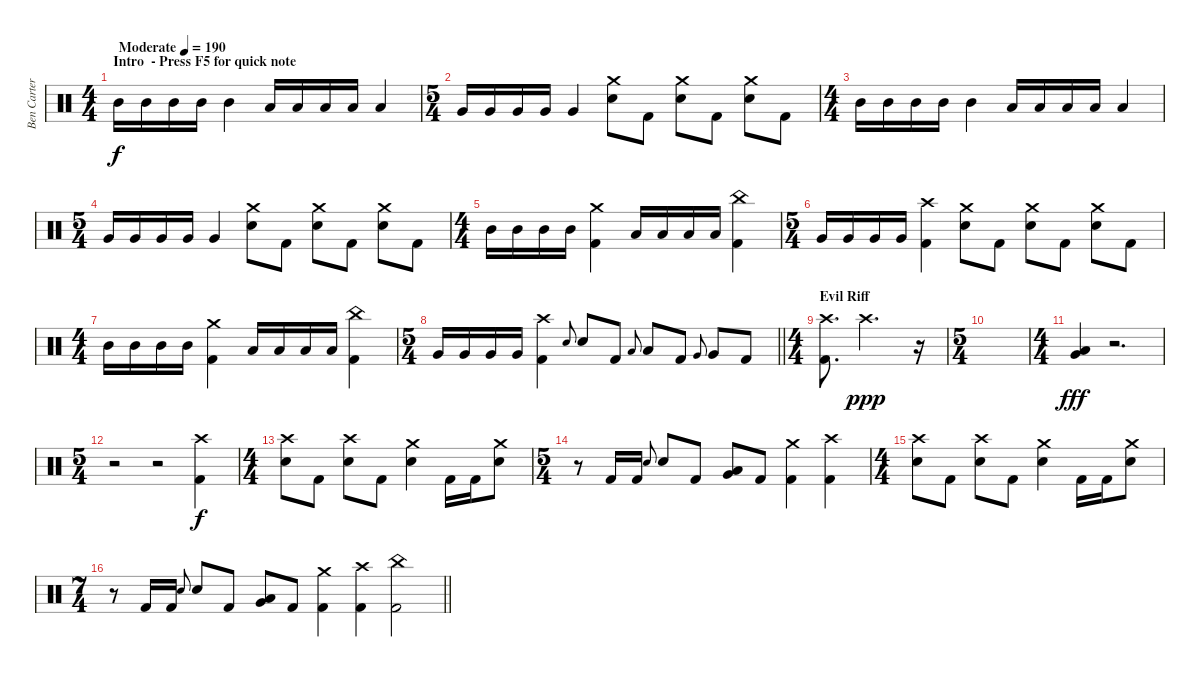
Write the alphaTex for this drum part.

\track ("Ben Carter" "Ben Carter") {instrument percussion}
\staff {score}
\articulation defaults
\ts (4 4)
\section ("" "Intro  - Press F5 for quick note")
\tempo (190 "Moderate")
\clef neutral
\ks c "Mid Tom (hit)".16{dy f} "Mid Tom (hit)".16 "Mid Tom (hit)".16 "Mid Tom (hit)".16 "Mid Tom (hit)".4 "Low Tom (hit)".16 "Low Tom (hit)".16 "Low Tom (hit)".16 "Low Tom (hit)".16 "Low Tom (hit)".4
|
\ts (5 4)
"Very Low Tom (hit)".16 "Very Low Tom (hit)".16 "Very Low Tom (hit)".16 "Very Low Tom (hit)".16 "Very Low Tom (hit)".4 ("Crash medium (hit)" "Snare (hit) 2").8 "Kick (hit) 2".8 ("Crash medium (hit)" "Snare (hit) 2").8 "Kick (hit) 2".8 ("Crash medium (hit)" "Snare (hit) 2").8 "Kick (hit) 2".8 |
\ts (4 4)
"Mid Tom (hit)".16 "Mid Tom (hit)".16 "Mid Tom (hit)".16 "Mid Tom (hit)".16 "Mid Tom (hit)".4 "Low Tom (hit)".16 "Low Tom (hit)".16 "Low Tom (hit)".16 "Low Tom (hit)".16 "Low Tom (hit)".4 |
\ts (5 4)
"Very Low Tom (hit)".16 "Very Low Tom (hit)".16 "Very Low Tom (hit)".16 "Very Low Tom (hit)".16 "Very Low Tom (hit)".4 ("Crash medium (hit)" "Snare (hit) 2").8 "Kick (hit) 2".8 ("Crash medium (hit)" "Snare (hit) 2").8 "Kick (hit) 2".8 ("Crash medium (hit)" "Snare (hit) 2").8 "Kick (hit) 2".8 |
\ts (4 4)
"Mid Tom (hit)".16 "Mid Tom (hit)".16 "Mid Tom (hit)".16 "Mid Tom (hit)".16 ("Crash medium (hit)" "Kick (hit) 2").4 "Low Tom (hit)".16 "Low Tom (hit)".16 "Low Tom (hit)".16 "Low Tom (hit)".16 ("China (hit)" "Kick (hit) 2").4 |
\ts (5 4)
"Very Low Tom (hit)".16 "Very Low Tom (hit)".16 "Very Low Tom (hit)".16 "Very Low Tom (hit)".16 ("Crash high (hit)" "Kick (hit) 2").4 ("Crash medium (hit)" "Snare (hit) 2").8 "Kick (hit) 2".8 ("Crash medium (hit)" "Snare (hit) 2").8 "Kick (hit) 2".8 ("Crash medium (hit)" "Snare (hit) 2").8 "Kick (hit) 2".8 |
\ts (4 4)
"Mid Tom (hit)".16 "Mid Tom (hit)".16 "Mid Tom (hit)".16 "Mid Tom (hit)".16 ("Crash medium (hit)" "Kick (hit) 2").4 "Low Tom (hit)".16 "Low Tom (hit)".16 "Low Tom (hit)".16 "Low Tom (hit)".16 ("China (hit)" "Kick (hit) 2").4 |
\ts (5 4)
\barLineRight lightlight "Very Low Tom (hit)".16 "Very Low Tom (hit)".16 "Very Low Tom (hit)".16 "Very Low Tom (hit)".16
("Crash high (hit)" "Kick (hit) 2").4 "Snare (hit) 2".8{gr onbeat} "Snare (hit) 2".8 "Kick (hit) 2".8 "Low Tom (hit)".8{gr onbeat} "Low Tom (hit)".8 "Kick (hit) 2".8 "Very Low Tom (hit)".8{gr onbeat} "Very Low Tom (hit)".8 "Kick (hit) 2".8 |
\ts (4 4)
\section ("" "Evil Riff")
("Crash high (hit)" "Kick (hit) 2").8{d} "Crash high (hit)".2{d dy ppp} r.16 |
\ts (5 4)
|
\ts (4 4)
("Low Tom (hit)" "Very Low Tom (hit)").4{dy fff} r.2{d} |
\ts (5 4)
r.2 r.2 ("Crash high (hit)" "Kick (hit) 2").4{dy f} |
\ts (4 4)
("Crash high (hit)" "Snare (hit) 2").8 "Kick (hit) 2".8 ("Crash high (hit)" "Snare (hit) 2").8 "Kick (hit) 2".8 ("Crash medium (hit)" "Snare (hit) 2").4 "Kick (hit) 2".16 "Kick (hit) 2".16 ("Crash medium (hit)" "Snare (hit) 2").8 |
\ts (5 4)
r.8 "Kick (hit) 2".16 "Kick (hit) 2".16 "Snare (hit) 2".8{gr onbeat} "Snare (hit) 2".8 "Kick (hit) 2".8 ("Low Tom (hit)" "Very Low Tom (hit)").8 "Kick (hit) 2".8 ("Crash medium (hit)" "Kick (hit) 2").4 ("Crash high (hit)" "Kick (hit) 2").4 |
\ts (4 4)
("Crash high (hit)" "Snare (hit) 2").8 "Kick (hit) 2".8 ("Crash high (hit)" "Snare (hit) 2").8 "Kick (hit) 2".8 ("Crash medium (hit)" "Snare (hit) 2").4 "Kick (hit) 2".16 "Kick (hit) 2".16 ("Crash medium (hit)" "Snare (hit) 2").8 |
\ts (7 4)
\barLineRight lightlight
r.8 "Kick (hit) 2".16 "Kick (hit) 2".16 "Snare (hit) 2".8{gr onbeat} "Snare (hit) 2".8 "Kick (hit) 2".8 ("Low Tom (hit)" "Very Low Tom (hit)").8 "Kick (hit) 2".8 ("Crash medium (hit)" "Kick (hit) 2").4 ("Crash high (hit)" "Kick (hit) 2").4 ("China (hit)" "Kick (hit) 2").2
